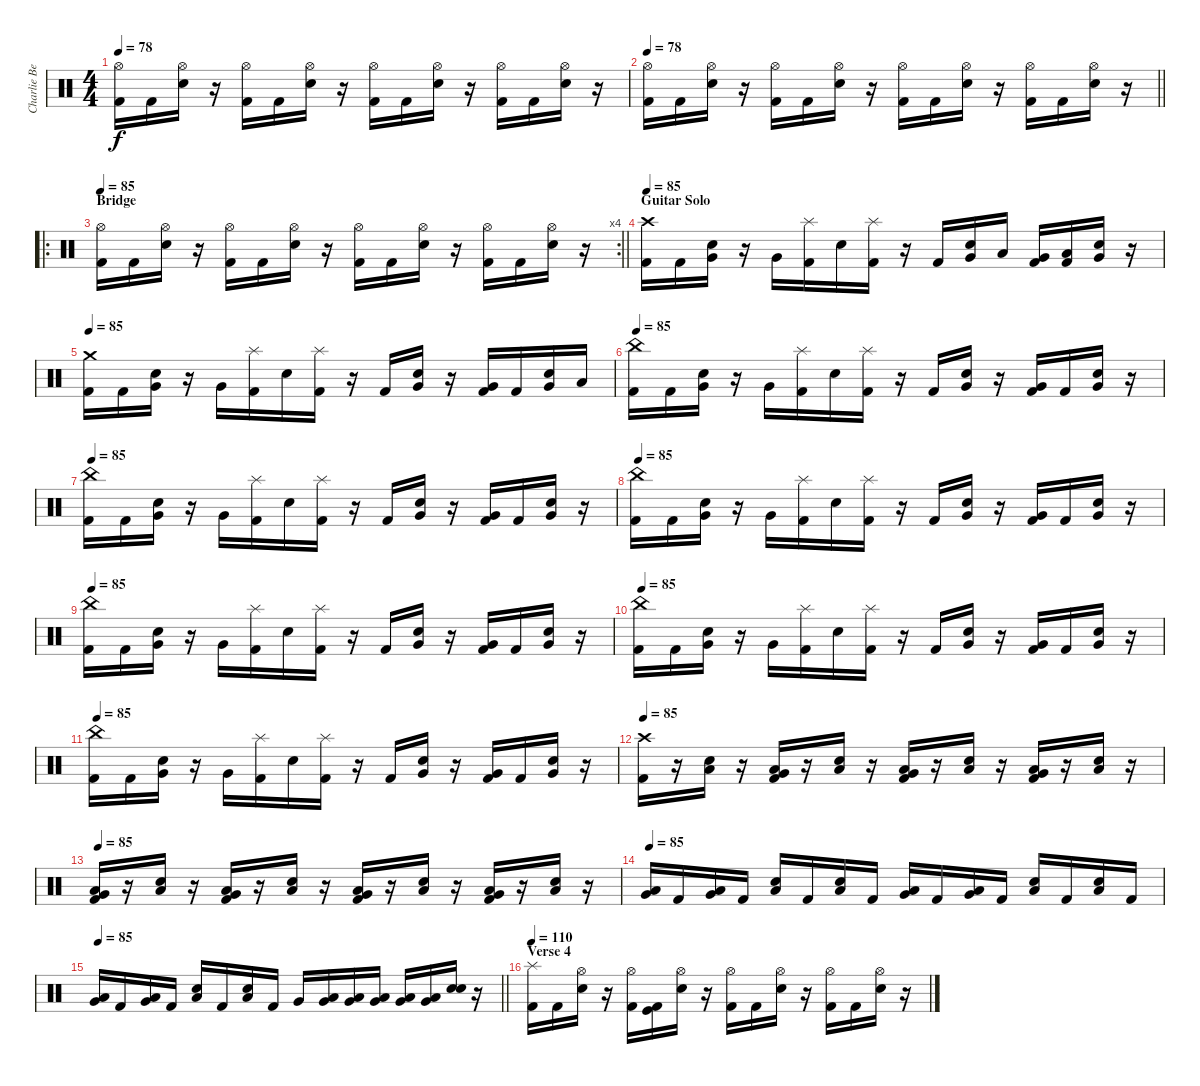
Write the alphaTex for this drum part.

\track ("Charlie Benante" "Charlie Be") {instrument percussion}
\staff {score}
\articulation defaults
\ts (4 4)
\tempo 78
\clef neutral
\ks c
("Hi-Hat (open)" "Kick (hit) 2").16{dy f} "Kick (hit) 2".16 ("Hi-Hat (open)" "Electric Snare (hit)").16 r.16 ("Hi-Hat (open)" "Kick (hit) 2").16 "Kick (hit) 2".16 ("Hi-Hat (open)" "Electric Snare (hit)").16 r.16 ("Hi-Hat (open)" "Kick (hit) 2").16 "Kick (hit) 2".16 ("Hi-Hat (open)" "Electric Snare (hit)").16 r.16 ("Hi-Hat (open)" "Kick (hit) 2").16 "Kick (hit) 2".16 ("Hi-Hat (open)" "Electric Snare (hit)").16 r.16 |
\tempo 78
\barLineRight lightlight
("Hi-Hat (open)" "Kick (hit) 2").16 "Kick (hit) 2".16 ("Hi-Hat (open)" "Electric Snare (hit)").16 r.16 ("Hi-Hat (open)" "Kick (hit) 2").16 "Kick (hit) 2".16 ("Hi-Hat (open)" "Electric Snare (hit)").16 r.16 ("Hi-Hat (open)" "Kick (hit) 2").16 "Kick (hit) 2".16 ("Hi-Hat (open)" "Electric Snare (hit)").16 r.16 ("Hi-Hat (open)" "Kick (hit) 2").16 "Kick (hit) 2".16 ("Hi-Hat (open)" "Electric Snare (hit)").16 r.16 |
\ro
\rc 4
\section ("" "Bridge")
\tempo 85
\barLineRight lightlight
("Hi-Hat (open)" "Kick (hit) 2").16 "Kick (hit) 2".16 ("Hi-Hat (open)" "Electric Snare (hit)").16 r.16 ("Hi-Hat (open)" "Kick (hit) 2").16 "Kick (hit) 2".16 ("Hi-Hat (open)" "Electric Snare (hit)").16 r.16 ("Hi-Hat (open)" "Kick (hit) 2").16 "Kick (hit) 2".16 ("Hi-Hat (open)" "Electric Snare (hit)").16 r.16 ("Hi-Hat (open)" "Kick (hit) 2").16 "Kick (hit) 2".16 ("Hi-Hat (open)" "Electric Snare (hit)").16 r.16 |
\section ("" "Guitar Solo")
\tempo 85
("Crash high (hit)" "Kick (hit) 2").16 "Kick (hit) 2".16 ("Very Low Tom (hit)" "Electric Snare (hit)").16 r.16 "Very Low Tom (hit)".16 ("Splash (hit)" "Kick (hit) 2").16 "Electric Snare (hit)".16 ("Splash (hit)" "Kick (hit) 2").16 r.16 "Kick (hit) 2".16 ("Very Low Tom (hit)" "Electric Snare (hit)").16 "Low Floor Tom (hit)".16 ("Very Low Tom (hit)" "Kick (hit) 2").16 ("Low Floor Tom (hit)" "Kick (hit) 2").16 ("Very Low Tom (hit)" "Electric Snare (hit)").16 r.16 |
\tempo 85
("Crash medium (hit)" "Kick (hit) 2").16 "Kick (hit) 2".16 ("Very Low Tom (hit)" "Electric Snare (hit)").16 r.16 "Very Low Tom (hit)".16 ("Splash (hit)" "Kick (hit) 2").16 "Electric Snare (hit)".16 ("Splash (hit)" "Kick (hit) 2").16 r.16 "Kick (hit) 2".16 ("Very Low Tom (hit)" "Electric Snare (hit)").16 r.16 ("Very Low Tom (hit)" "Kick (hit) 2").16 "Kick (hit) 2".16 ("Very Low Tom (hit)" "Electric Snare (hit)").16 "Low Floor Tom (hit)".16 |
\tempo 85
("China (hit)" "Kick (hit) 2").16 "Kick (hit) 2".16 ("Very Low Tom (hit)" "Electric Snare (hit)").16 r.16 "Very Low Tom (hit)".16 ("Splash (hit)" "Kick (hit) 2").16 "Electric Snare (hit)".16 ("Splash (hit)" "Kick (hit) 2").16 r.16 "Kick (hit) 2".16 ("Very Low Tom (hit)" "Electric Snare (hit)").16 r.16 ("Very Low Tom (hit)" "Kick (hit) 2").16 "Kick (hit) 2".16 ("Very Low Tom (hit)" "Electric Snare (hit)").16 r.16 |
\tempo 85
("China (hit)" "Kick (hit) 2").16 "Kick (hit) 2".16 ("Very Low Tom (hit)" "Electric Snare (hit)").16 r.16 "Very Low Tom (hit)".16 ("Splash (hit)" "Kick (hit) 2").16 "Electric Snare (hit)".16 ("Splash (hit)" "Kick (hit) 2").16 r.16 "Kick (hit) 2".16 ("Very Low Tom (hit)" "Electric Snare (hit)").16 r.16 ("Very Low Tom (hit)" "Kick (hit) 2").16 "Kick (hit) 2".16 ("Very Low Tom (hit)" "Electric Snare (hit)").16 r.16 |
\tempo 85
("China (hit)" "Kick (hit) 2").16 "Kick (hit) 2".16 ("Very Low Tom (hit)" "Electric Snare (hit)").16 r.16 "Very Low Tom (hit)".16 ("Splash (hit)" "Kick (hit) 2").16 "Electric Snare (hit)".16 ("Splash (hit)" "Kick (hit) 2").16 r.16 "Kick (hit) 2".16 ("Very Low Tom (hit)" "Electric Snare (hit)").16 r.16 ("Very Low Tom (hit)" "Kick (hit) 2").16 "Kick (hit) 2".16 ("Very Low Tom (hit)" "Electric Snare (hit)").16 r.16 |
\tempo 85
("China (hit)" "Kick (hit) 2").16 "Kick (hit) 2".16 ("Very Low Tom (hit)" "Electric Snare (hit)").16 r.16 "Very Low Tom (hit)".16 ("Splash (hit)" "Kick (hit) 2").16 "Electric Snare (hit)".16 ("Splash (hit)" "Kick (hit) 2").16 r.16 "Kick (hit) 2".16 ("Very Low Tom (hit)" "Electric Snare (hit)").16 r.16 ("Very Low Tom (hit)" "Kick (hit) 2").16 "Kick (hit) 2".16 ("Very Low Tom (hit)" "Electric Snare (hit)").16 r.16 |
\tempo 85
("China (hit)" "Kick (hit) 2").16 "Kick (hit) 2".16 ("Very Low Tom (hit)" "Electric Snare (hit)").16 r.16 "Very Low Tom (hit)".16 ("Splash (hit)" "Kick (hit) 2").16 "Electric Snare (hit)".16 ("Splash (hit)" "Kick (hit) 2").16 r.16 "Kick (hit) 2".16 ("Very Low Tom (hit)" "Electric Snare (hit)").16 r.16 ("Very Low Tom (hit)" "Kick (hit) 2").16 "Kick (hit) 2".16 ("Very Low Tom (hit)" "Electric Snare (hit)").16 r.16 |
\tempo 85
("China (hit)" "Kick (hit) 2").16 "Kick (hit) 2".16 ("Very Low Tom (hit)" "Electric Snare (hit)").16 r.16 "Very Low Tom (hit)".16 ("Splash (hit)" "Kick (hit) 2").16 "Electric Snare (hit)".16 ("Splash (hit)" "Kick (hit) 2").16 r.16 "Kick (hit) 2".16 ("Very Low Tom (hit)" "Electric Snare (hit)").16 r.16 ("Very Low Tom (hit)" "Kick (hit) 2").16 "Kick (hit) 2".16 ("Very Low Tom (hit)" "Electric Snare (hit)").16 r.16 |
\tempo 85
("Crash high (hit)" "Kick (hit) 2").16 r.16 ("Low Floor Tom (hit)" "Electric Snare (hit)").16 r.16 ("Low Floor Tom (hit)" "Very Low Tom (hit)" "Kick (hit) 2").16 r.16 ("Low Floor Tom (hit)" "Electric Snare (hit)").16 r.16 ("Low Floor Tom (hit)" "Very Low Tom (hit)" "Kick (hit) 2").16 r.16 ("Low Floor Tom (hit)" "Electric Snare (hit)").16 r.16 ("Low Floor Tom (hit)" "Very Low Tom (hit)" "Kick (hit) 2").16 r.16 ("Low Floor Tom (hit)" "Electric Snare (hit)").16 r.16 |
\tempo 85
("Low Floor Tom (hit)" "Very Low Tom (hit)" "Kick (hit) 2").16 r.16 ("Low Floor Tom (hit)" "Electric Snare (hit)").16 r.16 ("Low Floor Tom (hit)" "Very Low Tom (hit)" "Kick (hit) 2").16 r.16 ("Low Floor Tom (hit)" "Electric Snare (hit)").16 r.16 ("Low Floor Tom (hit)" "Very Low Tom (hit)" "Kick (hit) 2").16 r.16 ("Low Floor Tom (hit)" "Electric Snare (hit)").16 r.16 ("Low Floor Tom (hit)" "Very Low Tom (hit)" "Kick (hit) 2").16 r.16 ("Low Floor Tom (hit)" "Electric Snare (hit)").16 r.16 |
\tempo 85
("Low Floor Tom (hit)" "Very Low Tom (hit)").16 "Kick (hit) 2".16 ("Low Floor Tom (hit)" "Very Low Tom (hit)").16 "Kick (hit) 2".16 ("Low Floor Tom (hit)" "Electric Snare (hit)").16 "Kick (hit) 2".16 ("Low Floor Tom (hit)" "Electric Snare (hit)").16 "Kick (hit) 2".16 ("Low Floor Tom (hit)" "Very Low Tom (hit)").16 "Kick (hit) 2".16 ("Low Floor Tom (hit)" "Very Low Tom (hit)").16 "Kick (hit) 2".16 ("Low Floor Tom (hit)" "Electric Snare (hit)").16 "Kick (hit) 2".16 ("Low Floor Tom (hit)" "Electric Snare (hit)").16 "Kick (hit) 2".16 |
\tempo 85
\barLineRight lightlight
("Low Floor Tom (hit)" "Very Low Tom (hit)").16 "Kick (hit) 2".16 ("Low Floor Tom (hit)" "Very Low Tom (hit)").16 "Kick (hit) 2".16 ("Low Floor Tom (hit)" "Electric Snare (hit)").16 "Kick (hit) 2".16 ("Low Floor Tom (hit)" "Electric Snare (hit)").16 "Kick (hit) 2".16 "Very Low Tom (hit)".16 ("Low Floor Tom (hit)" "Very Low Tom (hit)").16 ("Low Floor Tom (hit)" "Very Low Tom (hit)").16 ("Low Floor Tom (hit)" "Very Low Tom (hit)").16 ("Low Floor Tom (hit)" "Very Low Tom (hit)").16 ("Low Floor Tom (hit)" "Very Low Tom (hit)").16 ("Electric Snare (hit)" "Snare (hit) 2").16 r.16 |
\section ("" "Verse 4")
\tempo 110
("Splash (hit)" "Kick (hit) 2").16 "Kick (hit) 2".16 ("Hi-Hat (open)" "Electric Snare (hit)").16 r.16 ("Hi-Hat (open)" "Kick (hit) 2").16 ("Kick (hit)" "Kick (hit) 2").16 ("Hi-Hat (open)" "Electric Snare (hit)").16 r.16 ("Hi-Hat (open)" "Kick (hit) 2").16 "Kick (hit) 2".16 ("Hi-Hat (open)" "Electric Snare (hit)").16 r.16 ("Hi-Hat (open)" "Kick (hit) 2").16 "Kick (hit) 2".16 ("Hi-Hat (open)" "Electric Snare (hit)").16 r.16
